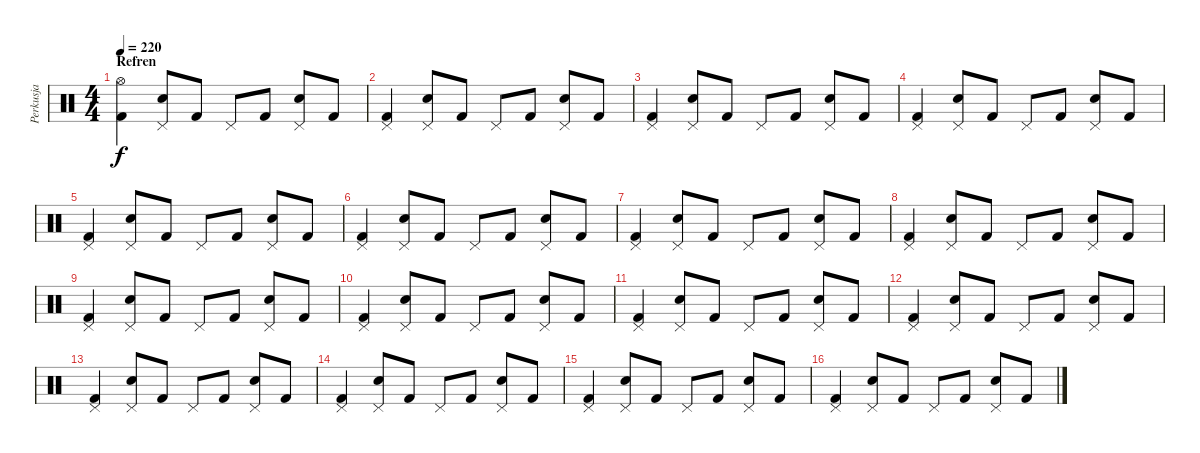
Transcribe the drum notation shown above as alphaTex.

\track ("Perkusja" "Perkusja") {instrument percussion}
\staff {score}
\articulation defaults
\ts (4 4)
\section ("" "Refren")
\tempo 220
\clef neutral
\ks c
("Hi-Hat (open)" "Kick (hit) 2").4{dy f} ("Pedal Hi-Hat (hit)" "Snare (hit) 2").8 "Kick (hit) 2".8 "Pedal Hi-Hat (hit)".8 "Kick (hit) 2".8 ("Pedal Hi-Hat (hit)" "Snare (hit) 2").8 "Kick (hit) 2".8 |
("Pedal Hi-Hat (hit)" "Kick (hit) 2").4 ("Pedal Hi-Hat (hit)" "Snare (hit) 2").8 "Kick (hit) 2".8 "Pedal Hi-Hat (hit)".8 "Kick (hit) 2".8 ("Pedal Hi-Hat (hit)" "Snare (hit) 2").8 "Kick (hit) 2".8 |
("Pedal Hi-Hat (hit)" "Kick (hit) 2").4 ("Pedal Hi-Hat (hit)" "Snare (hit) 2").8 "Kick (hit) 2".8 "Pedal Hi-Hat (hit)".8 "Kick (hit) 2".8 ("Pedal Hi-Hat (hit)" "Snare (hit) 2").8 "Kick (hit) 2".8 |
("Pedal Hi-Hat (hit)" "Kick (hit) 2").4 ("Pedal Hi-Hat (hit)" "Snare (hit) 2").8 "Kick (hit) 2".8 "Pedal Hi-Hat (hit)".8 "Kick (hit) 2".8 ("Pedal Hi-Hat (hit)" "Snare (hit) 2").8 "Kick (hit) 2".8 |
("Pedal Hi-Hat (hit)" "Kick (hit) 2").4 ("Pedal Hi-Hat (hit)" "Snare (hit) 2").8 "Kick (hit) 2".8 "Pedal Hi-Hat (hit)".8 "Kick (hit) 2".8 ("Pedal Hi-Hat (hit)" "Snare (hit) 2").8 "Kick (hit) 2".8 |
("Pedal Hi-Hat (hit)" "Kick (hit) 2").4 ("Pedal Hi-Hat (hit)" "Snare (hit) 2").8 "Kick (hit) 2".8 "Pedal Hi-Hat (hit)".8 "Kick (hit) 2".8 ("Pedal Hi-Hat (hit)" "Snare (hit) 2").8 "Kick (hit) 2".8 |
("Pedal Hi-Hat (hit)" "Kick (hit) 2").4 ("Pedal Hi-Hat (hit)" "Snare (hit) 2").8 "Kick (hit) 2".8 "Pedal Hi-Hat (hit)".8 "Kick (hit) 2".8 ("Pedal Hi-Hat (hit)" "Snare (hit) 2").8 "Kick (hit) 2".8 |
("Pedal Hi-Hat (hit)" "Kick (hit) 2").4 ("Pedal Hi-Hat (hit)" "Snare (hit) 2").8 "Kick (hit) 2".8 "Pedal Hi-Hat (hit)".8 "Kick (hit) 2".8 ("Pedal Hi-Hat (hit)" "Snare (hit) 2").8 "Kick (hit) 2".8 |
("Pedal Hi-Hat (hit)" "Kick (hit) 2").4 ("Pedal Hi-Hat (hit)" "Snare (hit) 2").8 "Kick (hit) 2".8 "Pedal Hi-Hat (hit)".8 "Kick (hit) 2".8 ("Pedal Hi-Hat (hit)" "Snare (hit) 2").8 "Kick (hit) 2".8 |
("Pedal Hi-Hat (hit)" "Kick (hit) 2").4 ("Pedal Hi-Hat (hit)" "Snare (hit) 2").8 "Kick (hit) 2".8 "Pedal Hi-Hat (hit)".8 "Kick (hit) 2".8 ("Pedal Hi-Hat (hit)" "Snare (hit) 2").8 "Kick (hit) 2".8 |
("Pedal Hi-Hat (hit)" "Kick (hit) 2").4 ("Pedal Hi-Hat (hit)" "Snare (hit) 2").8 "Kick (hit) 2".8 "Pedal Hi-Hat (hit)".8 "Kick (hit) 2".8 ("Pedal Hi-Hat (hit)" "Snare (hit) 2").8 "Kick (hit) 2".8 |
("Pedal Hi-Hat (hit)" "Kick (hit) 2").4 ("Pedal Hi-Hat (hit)" "Snare (hit) 2").8 "Kick (hit) 2".8 "Pedal Hi-Hat (hit)".8 "Kick (hit) 2".8 ("Pedal Hi-Hat (hit)" "Snare (hit) 2").8 "Kick (hit) 2".8 |
("Pedal Hi-Hat (hit)" "Kick (hit) 2").4 ("Pedal Hi-Hat (hit)" "Snare (hit) 2").8 "Kick (hit) 2".8 "Pedal Hi-Hat (hit)".8 "Kick (hit) 2".8 ("Pedal Hi-Hat (hit)" "Snare (hit) 2").8 "Kick (hit) 2".8 |
("Pedal Hi-Hat (hit)" "Kick (hit) 2").4 ("Pedal Hi-Hat (hit)" "Snare (hit) 2").8 "Kick (hit) 2".8 "Pedal Hi-Hat (hit)".8 "Kick (hit) 2".8 ("Pedal Hi-Hat (hit)" "Snare (hit) 2").8 "Kick (hit) 2".8 |
("Pedal Hi-Hat (hit)" "Kick (hit) 2").4 ("Pedal Hi-Hat (hit)" "Snare (hit) 2").8 "Kick (hit) 2".8 "Pedal Hi-Hat (hit)".8 "Kick (hit) 2".8 ("Pedal Hi-Hat (hit)" "Snare (hit) 2").8 "Kick (hit) 2".8 |
("Pedal Hi-Hat (hit)" "Kick (hit) 2").4 ("Pedal Hi-Hat (hit)" "Snare (hit) 2").8 "Kick (hit) 2".8 "Pedal Hi-Hat (hit)".8 "Kick (hit) 2".8 ("Pedal Hi-Hat (hit)" "Snare (hit) 2").8 "Kick (hit) 2".8
